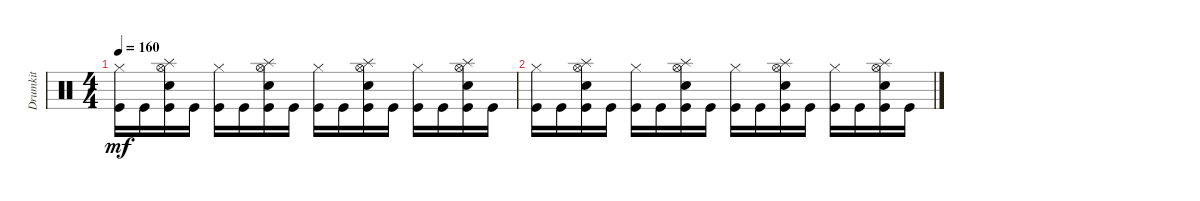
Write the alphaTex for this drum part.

\track ("Drumkit" "Drumkit") {instrument percussion}
\staff {score}
\articulation defaults
\ts (4 4)
\tempo 160
\clef neutral
\ks c
("Kick (hit)" "Hi-Hat (closed)").16{dy mf} "Kick (hit)".16 ("Kick (hit)" "Hi-Hat (open)" "Snare (hit) 2" "Splash (hit)").16 "Kick (hit)".16 ("Kick (hit)" "Hi-Hat (closed)").16 "Kick (hit)".16 ("Kick (hit)" "Hi-Hat (open)" "Snare (hit) 2" "Splash (hit)").16 "Kick (hit)".16 ("Kick (hit)" "Hi-Hat (closed)").16 "Kick (hit)".16 ("Kick (hit)" "Hi-Hat (open)" "Snare (hit) 2" "Splash (hit)").16 "Kick (hit)".16 ("Kick (hit)" "Hi-Hat (closed)").16 "Kick (hit)".16 ("Kick (hit)" "Hi-Hat (open)" "Snare (hit) 2" "Splash (hit)").16 "Kick (hit)".16 |
("Kick (hit)" "Hi-Hat (closed)").16 "Kick (hit)".16 ("Kick (hit)" "Hi-Hat (open)" "Snare (hit) 2" "Splash (hit)").16 "Kick (hit)".16 ("Kick (hit)" "Hi-Hat (closed)").16 "Kick (hit)".16 ("Kick (hit)" "Hi-Hat (open)" "Snare (hit) 2" "Splash (hit)").16 "Kick (hit)".16 ("Kick (hit)" "Hi-Hat (closed)").16 "Kick (hit)".16 ("Kick (hit)" "Hi-Hat (open)" "Snare (hit) 2" "Splash (hit)").16 "Kick (hit)".16 ("Kick (hit)" "Hi-Hat (closed)").16 "Kick (hit)".16 ("Kick (hit)" "Hi-Hat (open)" "Snare (hit) 2" "Splash (hit)").16 "Kick (hit)".16
